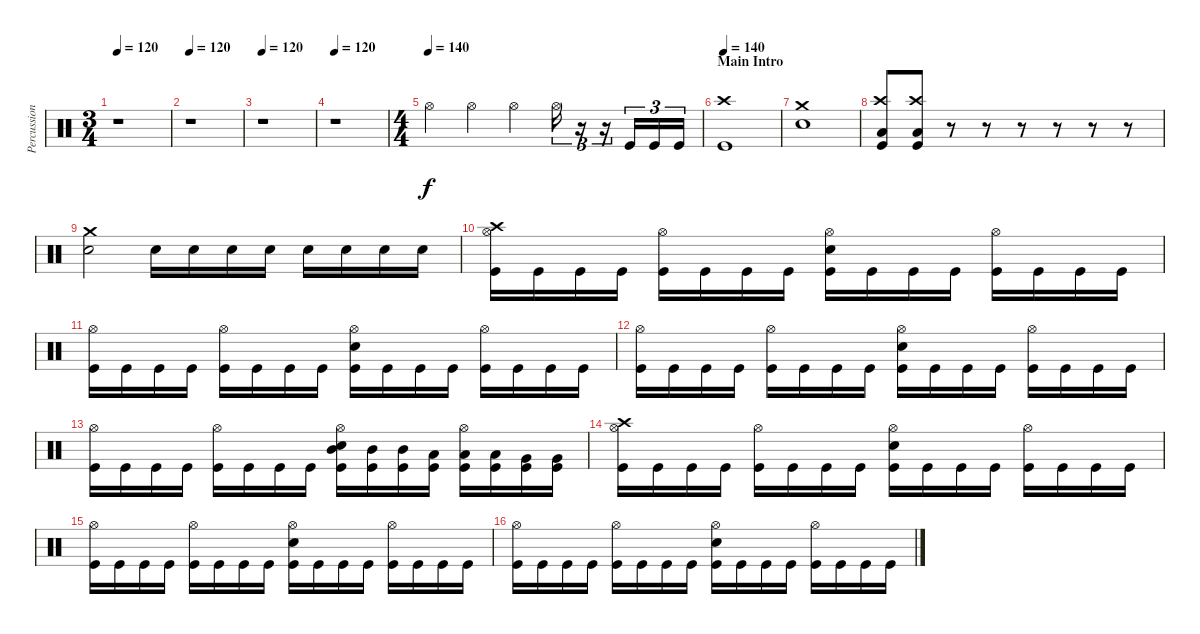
\track ("Percussion" "Percussion") {instrument percussion}
\staff {score}
\articulation defaults
\ts (3 4)
\tempo 120
\clef neutral
\ks c
r.1{dy f} |
\tempo 120
r.1 |
\tempo 120
r.1 |
\tempo 120
r.1 |
\ts (4 4)
\tempo (140)
"Hi-Hat (open)".4 "Hi-Hat (open)".4 "Hi-Hat (open)".4 "Hi-Hat (open)".16{tu (3 2)} r.16{tu (3 2)} r.16{tu (3 2)} "Kick (hit)".16{tu (3 2)} "Kick (hit)".16{tu (3 2)} "Kick (hit)".16{tu (3 2)} |
\section ("" "Main Intro")
\tempo 140
("Crash high (hit)" "Kick (hit)").1 |
("Crash medium (hit)" "Electric Snare (hit)").1 |
("Crash high (hit)" "Low Floor Tom (hit)" "Kick (hit)").8 ("Crash high (hit)" "Low Floor Tom (hit)" "Kick (hit)").8 r.8 r.8 r.8 r.8 r.8 r.8 |
("Crash medium (hit)" "Electric Snare (hit)").2 "Electric Snare (hit)".16 "Electric Snare (hit)".16 "Electric Snare (hit)".16 "Electric Snare (hit)".16 "Electric Snare (hit)".16 "Electric Snare (hit)".16 "Electric Snare (hit)".16 "Electric Snare (hit)".16 |
("Crash high (hit)" "Hi-Hat (open)" "Kick (hit)").16 "Kick (hit)".16 "Kick (hit)".16 "Kick (hit)".16 ("Hi-Hat (open)" "Kick (hit)").16 "Kick (hit)".16 "Kick (hit)".16 "Kick (hit)".16 ("Hi-Hat (open)" "Electric Snare (hit)" "Kick (hit)").16 "Kick (hit)".16 "Kick (hit)".16 "Kick (hit)".16 ("Hi-Hat (open)" "Kick (hit)").16 "Kick (hit)".16 "Kick (hit)".16 "Kick (hit)".16 |
("Hi-Hat (open)" "Kick (hit)").16 "Kick (hit)".16 "Kick (hit)".16 "Kick (hit)".16 ("Hi-Hat (open)" "Kick (hit)").16 "Kick (hit)".16 "Kick (hit)".16 "Kick (hit)".16 ("Hi-Hat (open)" "Electric Snare (hit)" "Kick (hit)").16 "Kick (hit)".16 "Kick (hit)".16 "Kick (hit)".16 ("Hi-Hat (open)" "Kick (hit)").16 "Kick (hit)".16 "Kick (hit)".16 "Kick (hit)".16 |
("Hi-Hat (open)" "Kick (hit)").16 "Kick (hit)".16 "Kick (hit)".16 "Kick (hit)".16 ("Hi-Hat (open)" "Kick (hit)").16 "Kick (hit)".16 "Kick (hit)".16 "Kick (hit)".16 ("Hi-Hat (open)" "Electric Snare (hit)" "Kick (hit)").16 "Kick (hit)".16 "Kick (hit)".16 "Kick (hit)".16 ("Hi-Hat (open)" "Kick (hit)").16 "Kick (hit)".16 "Kick (hit)".16 "Kick (hit)".16 |
("Hi-Hat (open)" "Kick (hit)").16 "Kick (hit)".16 "Kick (hit)".16 "Kick (hit)".16 ("Hi-Hat (open)" "Kick (hit)").16 "Kick (hit)".16 "Kick (hit)".16 "Kick (hit)".16 ("Mid Tom (hit)" "Hi-Hat (open)" "Electric Snare (hit)" "Kick (hit)").16 ("Mid Tom (hit)" "Kick (hit)").16 ("Mid Tom (hit)" "Kick (hit)").16 ("Low Tom (hit)" "Kick (hit)").16 ("Low Tom (hit)" "Hi-Hat (open)" "Kick (hit)").16 ("Low Tom (hit)" "Kick (hit)").16 ("Very Low Tom (hit)" "Kick (hit)").16 ("Very Low Tom (hit)" "Kick (hit)").16 |
("Crash high (hit)" "Hi-Hat (open)" "Kick (hit)").16 "Kick (hit)".16 "Kick (hit)".16 "Kick (hit)".16 ("Hi-Hat (open)" "Kick (hit)").16 "Kick (hit)".16 "Kick (hit)".16 "Kick (hit)".16 ("Hi-Hat (open)" "Electric Snare (hit)" "Kick (hit)").16 "Kick (hit)".16 "Kick (hit)".16 "Kick (hit)".16 ("Hi-Hat (open)" "Kick (hit)").16 "Kick (hit)".16 "Kick (hit)".16 "Kick (hit)".16 |
("Hi-Hat (open)" "Kick (hit)").16 "Kick (hit)".16 "Kick (hit)".16 "Kick (hit)".16 ("Hi-Hat (open)" "Kick (hit)").16 "Kick (hit)".16 "Kick (hit)".16 "Kick (hit)".16 ("Hi-Hat (open)" "Electric Snare (hit)" "Kick (hit)").16 "Kick (hit)".16 "Kick (hit)".16 "Kick (hit)".16 ("Hi-Hat (open)" "Kick (hit)").16 "Kick (hit)".16 "Kick (hit)".16 "Kick (hit)".16 |
("Hi-Hat (open)" "Kick (hit)").16 "Kick (hit)".16 "Kick (hit)".16 "Kick (hit)".16 ("Hi-Hat (open)" "Kick (hit)").16 "Kick (hit)".16 "Kick (hit)".16 "Kick (hit)".16 ("Hi-Hat (open)" "Electric Snare (hit)" "Kick (hit)").16 "Kick (hit)".16 "Kick (hit)".16 "Kick (hit)".16 ("Hi-Hat (open)" "Kick (hit)").16 "Kick (hit)".16 "Kick (hit)".16 "Kick (hit)".16
